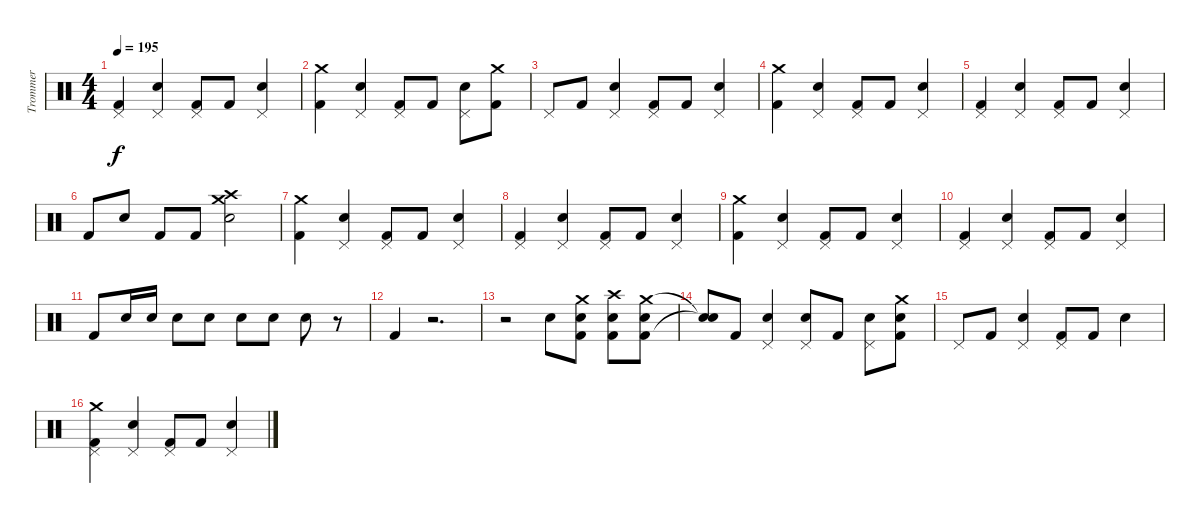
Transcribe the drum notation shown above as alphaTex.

\track ("Trommer" "Trommer") {instrument percussion}
\staff {score}
\articulation defaults
\ts (4 4)
\tempo 195
\clef neutral
\ks c
("Pedal Hi-Hat (hit)" "Kick (hit) 2").4{dy f} ("Pedal Hi-Hat (hit)" "Snare (hit) 2").4 ("Pedal Hi-Hat (hit)" "Kick (hit) 2").8 "Kick (hit) 2".8 ("Pedal Hi-Hat (hit)" "Snare (hit) 2").4 |
("Crash medium (hit)" "Kick (hit) 2").4 ("Pedal Hi-Hat (hit)" "Snare (hit) 2").4 ("Pedal Hi-Hat (hit)" "Kick (hit) 2").8 "Kick (hit) 2".8 ("Pedal Hi-Hat (hit)" "Snare (hit) 2").8 ("Crash medium (hit)" "Kick (hit) 2").8 |
"Pedal Hi-Hat (hit)".8 "Kick (hit) 2".8 ("Pedal Hi-Hat (hit)" "Snare (hit) 2").4 ("Pedal Hi-Hat (hit)" "Kick (hit) 2").8 "Kick (hit) 2".8 ("Pedal Hi-Hat (hit)" "Snare (hit) 2").4 |
("Crash medium (hit)" "Kick (hit) 2").4 ("Pedal Hi-Hat (hit)" "Snare (hit) 2").4 ("Pedal Hi-Hat (hit)" "Kick (hit) 2").8 "Kick (hit) 2".8 ("Pedal Hi-Hat (hit)" "Snare (hit) 2").4 |
("Pedal Hi-Hat (hit)" "Kick (hit) 2").4 ("Pedal Hi-Hat (hit)" "Snare (hit) 2").4 ("Pedal Hi-Hat (hit)" "Kick (hit) 2").8 "Kick (hit) 2".8 ("Pedal Hi-Hat (hit)" "Snare (hit) 2").4 |
"Kick (hit) 2".8 "Snare (hit) 2".8 "Kick (hit) 2".8 "Kick (hit) 2".8 ("Crash high (hit)" "Crash medium (hit)" "Snare (hit) 2").2 |
("Crash medium (hit)" "Kick (hit) 2").4 ("Pedal Hi-Hat (hit)" "Snare (hit) 2").4 ("Pedal Hi-Hat (hit)" "Kick (hit) 2").8 "Kick (hit) 2".8 ("Pedal Hi-Hat (hit)" "Snare (hit) 2").4 |
("Pedal Hi-Hat (hit)" "Kick (hit) 2").4 ("Pedal Hi-Hat (hit)" "Snare (hit) 2").4 ("Pedal Hi-Hat (hit)" "Kick (hit) 2").8 "Kick (hit) 2".8 ("Pedal Hi-Hat (hit)" "Snare (hit) 2").4 |
("Crash medium (hit)" "Kick (hit) 2").4 ("Pedal Hi-Hat (hit)" "Snare (hit) 2").4 ("Pedal Hi-Hat (hit)" "Kick (hit) 2").8 "Kick (hit) 2".8 ("Pedal Hi-Hat (hit)" "Snare (hit) 2").4 |
("Pedal Hi-Hat (hit)" "Kick (hit) 2").4 ("Pedal Hi-Hat (hit)" "Snare (hit) 2").4 ("Pedal Hi-Hat (hit)" "Kick (hit) 2").8 "Kick (hit) 2".8 ("Pedal Hi-Hat (hit)" "Snare (hit) 2").4 |
"Kick (hit) 2".8 "Snare (hit) 2".16 "Snare (hit) 2".16 "Snare (hit) 2".8 "Snare (hit) 2".8 "Snare (hit) 2".8 "Snare (hit) 2".8 "Snare (hit) 2".8 r.8 |
"Kick (hit) 2".4 r.2{d} |
r.2 "Snare (hit) 2".8 ("Crash medium (hit)" "Kick (hit) 2" "Snare (hit) 2").8 ("Crash high (hit)" "Snare (hit) 2" "Kick (hit) 2").8 ("Crash medium (hit)" "Kick (hit) 2" "Snare (hit) 2").8 |
("Snare (hit)"{t} "Snare (hit)"{t}).8 "Kick (hit) 2".8 ("Pedal Hi-Hat (hit)" "Snare (hit) 2").4 ("Pedal Hi-Hat (hit)" "Snare (hit) 2").8 "Kick (hit) 2".8 ("Pedal Hi-Hat (hit)" "Snare (hit) 2").8 ("Crash medium (hit)" "Kick (hit) 2" "Snare (hit) 2").8 |
"Pedal Hi-Hat (hit)".8 "Kick (hit) 2".8 ("Pedal Hi-Hat (hit)" "Snare (hit) 2").4 ("Pedal Hi-Hat (hit)" "Kick (hit) 2").8 "Kick (hit) 2".8 "Snare (hit) 2".4 |
("Pedal Hi-Hat (hit)" "Crash medium (hit)" "Kick (hit) 2").4 ("Pedal Hi-Hat (hit)" "Snare (hit) 2").4 ("Pedal Hi-Hat (hit)" "Kick (hit) 2").8 "Kick (hit) 2".8 ("Pedal Hi-Hat (hit)" "Snare (hit) 2").4
